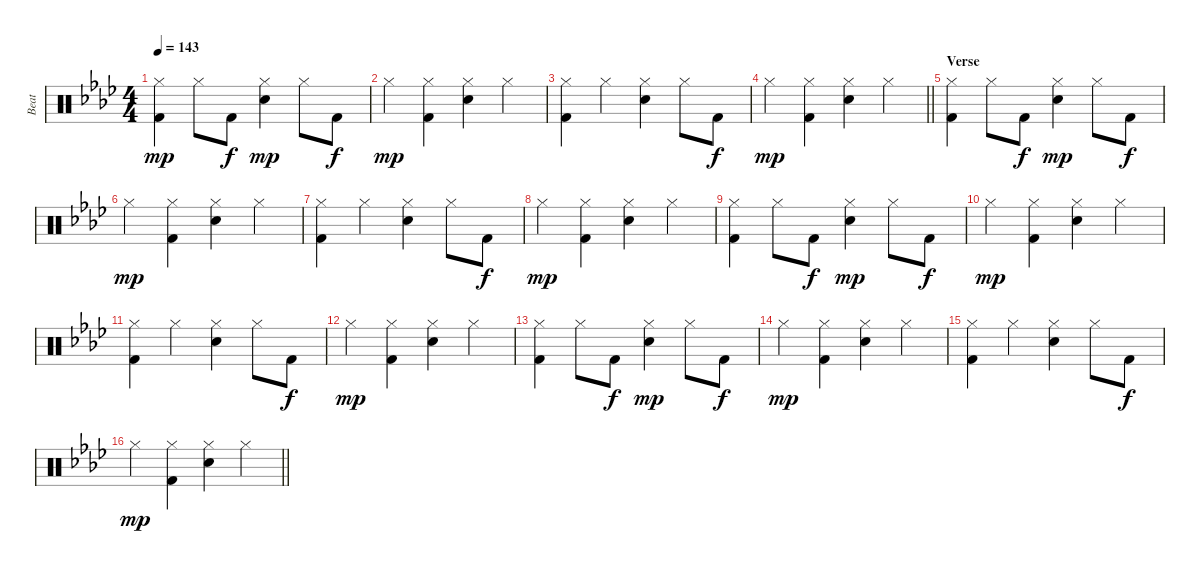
\track ("Beat" "Beat") {instrument percussion}
\staff {score}
\articulation defaults
\ts (4 4)
\tempo 143
\clef neutral
\ks ab
("Hi-Hat (closed)" "Kick (hit) 2").4{dy mp} "Hi-Hat (closed)".8 "Kick (hit) 2".8{dy f} ("Hi-Hat (closed)" "Hand Clap (hit)").4{dy mp} "Hi-Hat (closed)".8 "Kick (hit) 2".8{dy f} |
"Hi-Hat (closed)".4{dy mp} ("Hi-Hat (closed)" "Kick (hit) 2").4 ("Hi-Hat (closed)" "Hand Clap (hit)").4 "Hi-Hat (closed)".4 |
("Hi-Hat (closed)" "Kick (hit) 2").4 "Hi-Hat (closed)".4 ("Hi-Hat (closed)" "Hand Clap (hit)").4 "Hi-Hat (closed)".8 "Kick (hit) 2".8{dy f} |
\barLineRight lightlight "Hi-Hat (closed)".4{dy mp}
("Hi-Hat (closed)" "Kick (hit) 2").4 ("Hi-Hat (closed)" "Hand Clap (hit)").4 "Hi-Hat (closed)".4 |
\section ("" "Verse")
("Hi-Hat (closed)" "Kick (hit) 2").4 "Hi-Hat (closed)".8 "Kick (hit) 2".8{dy f} ("Hi-Hat (closed)" "Hand Clap (hit)").4{dy mp} "Hi-Hat (closed)".8 "Kick (hit) 2".8{dy f} |
"Hi-Hat (closed)".4{dy mp} ("Hi-Hat (closed)" "Kick (hit) 2").4 ("Hi-Hat (closed)" "Hand Clap (hit)").4 "Hi-Hat (closed)".4 |
("Hi-Hat (closed)" "Kick (hit) 2").4 "Hi-Hat (closed)".4 ("Hi-Hat (closed)" "Hand Clap (hit)").4 "Hi-Hat (closed)".8 "Kick (hit) 2".8{dy f} |
"Hi-Hat (closed)".4{dy mp} ("Hi-Hat (closed)" "Kick (hit) 2").4 ("Hi-Hat (closed)" "Hand Clap (hit)").4 "Hi-Hat (closed)".4 |
("Hi-Hat (closed)" "Kick (hit) 2").4 "Hi-Hat (closed)".8 "Kick (hit) 2".8{dy f} ("Hi-Hat (closed)" "Hand Clap (hit)").4{dy mp} "Hi-Hat (closed)".8 "Kick (hit) 2".8{dy f} |
"Hi-Hat (closed)".4{dy mp} ("Hi-Hat (closed)" "Kick (hit) 2").4 ("Hi-Hat (closed)" "Hand Clap (hit)").4 "Hi-Hat (closed)".4 |
("Hi-Hat (closed)" "Kick (hit) 2").4 "Hi-Hat (closed)".4 ("Hi-Hat (closed)" "Hand Clap (hit)").4 "Hi-Hat (closed)".8 "Kick (hit) 2".8{dy f} |
"Hi-Hat (closed)".4{dy mp} ("Hi-Hat (closed)" "Kick (hit) 2").4 ("Hi-Hat (closed)" "Hand Clap (hit)").4 "Hi-Hat (closed)".4 |
("Hi-Hat (closed)" "Kick (hit) 2").4 "Hi-Hat (closed)".8 "Kick (hit) 2".8{dy f} ("Hi-Hat (closed)" "Hand Clap (hit)").4{dy mp} "Hi-Hat (closed)".8 "Kick (hit) 2".8{dy f} |
"Hi-Hat (closed)".4{dy mp} ("Hi-Hat (closed)" "Kick (hit) 2").4 ("Hi-Hat (closed)" "Hand Clap (hit)").4 "Hi-Hat (closed)".4 |
("Hi-Hat (closed)" "Kick (hit) 2").4 "Hi-Hat (closed)".4 ("Hi-Hat (closed)" "Hand Clap (hit)").4 "Hi-Hat (closed)".8 "Kick (hit) 2".8{dy f} |
\barLineRight lightlight "Hi-Hat (closed)".4{dy mp}
("Hi-Hat (closed)" "Kick (hit) 2").4 ("Hi-Hat (closed)" "Hand Clap (hit)").4 "Hi-Hat (closed)".4
